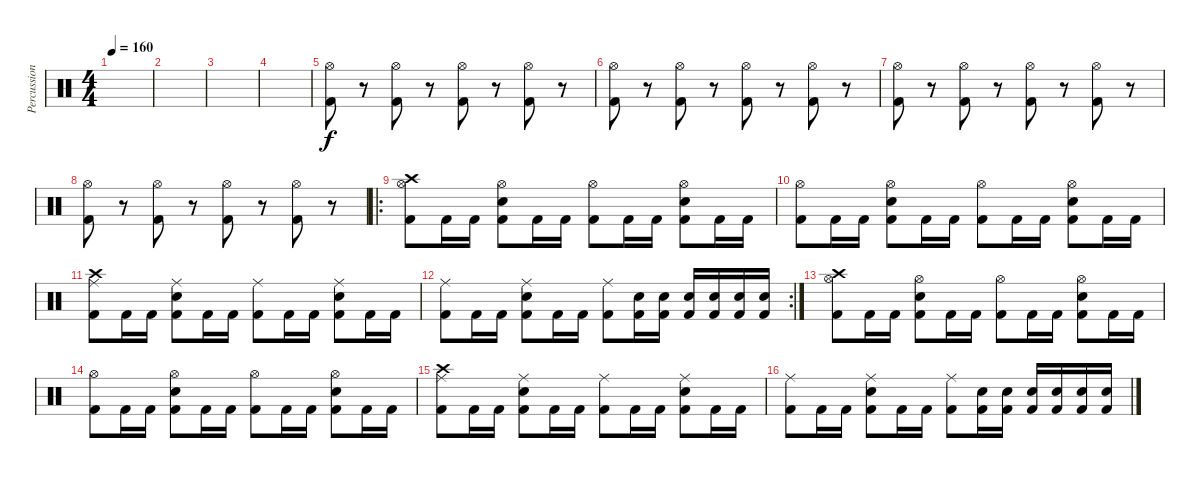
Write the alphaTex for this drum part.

\track ("Percussion" "Percussion") {instrument percussion}
\staff {score}
\articulation defaults
\ts (4 4)
\tempo 160
\clef neutral
\ks c
|
|
|
|
("Hi-Hat (open)" "Kick (hit) 2").8 r.8 ("Hi-Hat (open)" "Kick (hit) 2").8 r.8 ("Hi-Hat (open)" "Kick (hit) 2").8 r.8 ("Hi-Hat (open)" "Kick (hit) 2").8 r.8 |
("Hi-Hat (open)" "Kick (hit) 2").8 r.8 ("Hi-Hat (open)" "Kick (hit) 2").8 r.8 ("Hi-Hat (open)" "Kick (hit) 2").8 r.8 ("Hi-Hat (open)" "Kick (hit) 2").8 r.8 |
("Hi-Hat (open)" "Kick (hit) 2").8 r.8 ("Hi-Hat (open)" "Kick (hit) 2").8 r.8 ("Hi-Hat (open)" "Kick (hit) 2").8 r.8 ("Hi-Hat (open)" "Kick (hit) 2").8 r.8 |
("Hi-Hat (open)" "Kick (hit) 2").8 r.8 ("Hi-Hat (open)" "Kick (hit) 2").8 r.8 ("Hi-Hat (open)" "Kick (hit) 2").8 r.8 ("Hi-Hat (open)" "Kick (hit) 2").8 r.8 |
\ro
("Crash high (hit)" "Hi-Hat (open)" "Kick (hit) 2").8 "Kick (hit) 2".16 "Kick (hit) 2".16 ("Hi-Hat (open)" "Electric Snare (hit)" "Kick (hit) 2").8 "Kick (hit) 2".16 "Kick (hit) 2".16 ("Hi-Hat (open)" "Kick (hit) 2").8 "Kick (hit) 2".16 "Kick (hit) 2".16 ("Hi-Hat (open)" "Electric Snare (hit)" "Kick (hit) 2").8 "Kick (hit) 2".16 "Kick (hit) 2".16 |
("Hi-Hat (open)" "Kick (hit) 2").8 "Kick (hit) 2".16 "Kick (hit) 2".16 ("Hi-Hat (open)" "Electric Snare (hit)" "Kick (hit) 2").8 "Kick (hit) 2".16 "Kick (hit) 2".16 ("Hi-Hat (open)" "Kick (hit) 2").8 "Kick (hit) 2".16 "Kick (hit) 2".16 ("Hi-Hat (open)" "Electric Snare (hit)" "Kick (hit) 2").8 "Kick (hit) 2".16 "Kick (hit) 2".16 |
("Crash high (hit)" "Ride (middle)" "Kick (hit) 2").8 "Kick (hit) 2".16 "Kick (hit) 2".16 ("Ride (middle)" "Electric Snare (hit)" "Kick (hit) 2").8 "Kick (hit) 2".16 "Kick (hit) 2".16 ("Ride (middle)" "Kick (hit) 2").8 "Kick (hit) 2".16 "Kick (hit) 2".16 ("Ride (middle)" "Electric Snare (hit)" "Kick (hit) 2").8 "Kick (hit) 2".16 "Kick (hit) 2".16 |
\rc 2
("Ride (middle)" "Kick (hit) 2").8 "Kick (hit) 2".16 "Kick (hit) 2".16 ("Ride (middle)" "Electric Snare (hit)" "Kick (hit) 2").8 "Kick (hit) 2".16 "Kick (hit) 2".16 ("Ride (middle)" "Kick (hit) 2").8 ("Electric Snare (hit)" "Kick (hit) 2").16 ("Electric Snare (hit)" "Kick (hit) 2").16 ("Electric Snare (hit)" "Kick (hit) 2").16 ("Electric Snare (hit)" "Kick (hit) 2").16 ("Electric Snare (hit)" "Kick (hit) 2").16 ("Electric Snare (hit)" "Kick (hit) 2").16 |
("Crash high (hit)" "Hi-Hat (open)" "Kick (hit) 2").8 "Kick (hit) 2".16 "Kick (hit) 2".16 ("Hi-Hat (open)" "Electric Snare (hit)" "Kick (hit) 2").8 "Kick (hit) 2".16 "Kick (hit) 2".16 ("Hi-Hat (open)" "Kick (hit) 2").8 "Kick (hit) 2".16 "Kick (hit) 2".16 ("Hi-Hat (open)" "Electric Snare (hit)" "Kick (hit) 2").8 "Kick (hit) 2".16 "Kick (hit) 2".16 |
("Hi-Hat (open)" "Kick (hit) 2").8 "Kick (hit) 2".16 "Kick (hit) 2".16 ("Hi-Hat (open)" "Electric Snare (hit)" "Kick (hit) 2").8 "Kick (hit) 2".16 "Kick (hit) 2".16 ("Hi-Hat (open)" "Kick (hit) 2").8 "Kick (hit) 2".16 "Kick (hit) 2".16 ("Hi-Hat (open)" "Electric Snare (hit)" "Kick (hit) 2").8 "Kick (hit) 2".16 "Kick (hit) 2".16 |
("Crash high (hit)" "Ride (middle)" "Kick (hit) 2").8 "Kick (hit) 2".16 "Kick (hit) 2".16 ("Ride (middle)" "Electric Snare (hit)" "Kick (hit) 2").8 "Kick (hit) 2".16 "Kick (hit) 2".16 ("Ride (middle)" "Kick (hit) 2").8 "Kick (hit) 2".16 "Kick (hit) 2".16 ("Ride (middle)" "Electric Snare (hit)" "Kick (hit) 2").8 "Kick (hit) 2".16 "Kick (hit) 2".16 |
("Ride (middle)" "Kick (hit) 2").8 "Kick (hit) 2".16 "Kick (hit) 2".16 ("Ride (middle)" "Electric Snare (hit)" "Kick (hit) 2").8 "Kick (hit) 2".16 "Kick (hit) 2".16 ("Ride (middle)" "Kick (hit) 2").8 ("Electric Snare (hit)" "Kick (hit) 2").16 ("Electric Snare (hit)" "Kick (hit) 2").16 ("Electric Snare (hit)" "Kick (hit) 2").16 ("Electric Snare (hit)" "Kick (hit) 2").16 ("Electric Snare (hit)" "Kick (hit) 2").16 ("Electric Snare (hit)" "Kick (hit) 2").16
